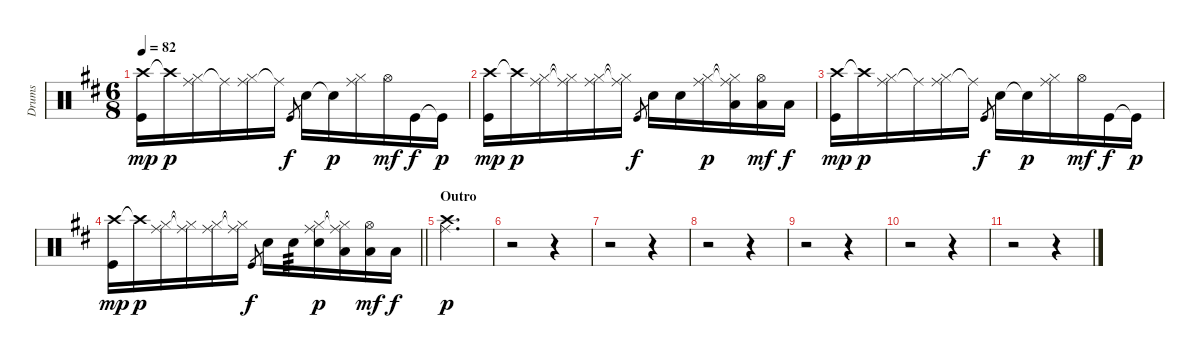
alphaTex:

\track ("Drums" "Drums") {instrument percussion}
\staff {score}
\articulation defaults
\ts (6 8)
\tempo 82
\clef neutral
\ks d
("Crash high (hit)" "Kick (hit)").16{dy mp} "Crash high (hit)"{t}.16{dy p} ("Ride (middle)" "Hi-Hat (closed)").16 "Ride (middle)"{t}.16 ("Ride (middle)" "Hi-Hat (closed)").16 "Ride (middle)"{t}.16 "Kick (hit)".8{gr dy f} "Electric Snare (hit)".16 "Electric Snare (hit)"{t}.16{dy p} ("Ride (middle)" "Hi-Hat (closed)").16 "Hi-Hat (open)".16{dy mf} "Kick (hit)".16{dy f} "Kick (hit)"{t}.16{dy p} |
("Crash high (hit)" "Kick (hit)").16{dy mp} "Crash high (hit)"{t}.16{dy p} ("Ride (middle)" "Hi-Hat (closed)").16 ("Ride (middle)"{t} "Hi-Hat (closed)"{t}).16 ("Ride (middle)" "Hi-Hat (closed)").16 ("Ride (middle)"{t} "Hi-Hat (closed)"{t}).16 "Kick (hit)".8{gr dy f} "Electric Snare (hit)".16 "Electric Snare (hit)".16 ("Ride (middle)" "Hi-Hat (closed)").16{dy p} ("Ride (middle)"{t} "Hi-Hat (closed)"{t} "Low Floor Tom (hit)").16 ("Hi-Hat (open)" "Low Floor Tom (hit)").16{dy mf} "Low Floor Tom (hit)".16{dy f} |
("Crash high (hit)" "Kick (hit)").16{dy mp} "Crash high (hit)"{t}.16{dy p} ("Ride (middle)" "Hi-Hat (closed)").16 "Ride (middle)"{t}.16 ("Ride (middle)" "Hi-Hat (closed)").16 "Ride (middle)"{t}.16 "Kick (hit)".8{gr dy f} "Electric Snare (hit)".16 "Electric Snare (hit)"{t}.16{dy p} ("Ride (middle)" "Hi-Hat (closed)").16 "Hi-Hat (open)".16{dy mf} "Kick (hit)".16{dy f} "Kick (hit)"{t}.16{dy p} |
\barLineRight lightlight
("Crash high (hit)" "Kick (hit)").16{dy mp} "Crash high (hit)"{t}.16{dy p} ("Ride (middle)" "Hi-Hat (closed)").16 ("Ride (middle)"{t} "Hi-Hat (closed)"{t}).16 ("Ride (middle)" "Hi-Hat (closed)").16 ("Ride (middle)"{t} "Hi-Hat (closed)"{t}).16 "Kick (hit)".8{gr dy f} "Electric Snare (hit)".16 "Electric Snare (hit)".16{tp 3} ("Ride (middle)" "Hi-Hat (closed)" "Electric Snare (hit)").16{dy p} ("Ride (middle)"{t} "Hi-Hat (closed)"{t} "Low Floor Tom (hit)").16 ("Hi-Hat (open)" "Low Floor Tom (hit)").16{dy mf} "Low Floor Tom (hit)".16{dy f} |
\section ("" "Outro")
("Crash high (hit)" "Ride (middle)").2{d dy p} |
r.2 r.4 |
r.2 r.4 |
r.2 r.4 |
r.2 r.4 |
r.2 r.4 |
r.2 r.4
